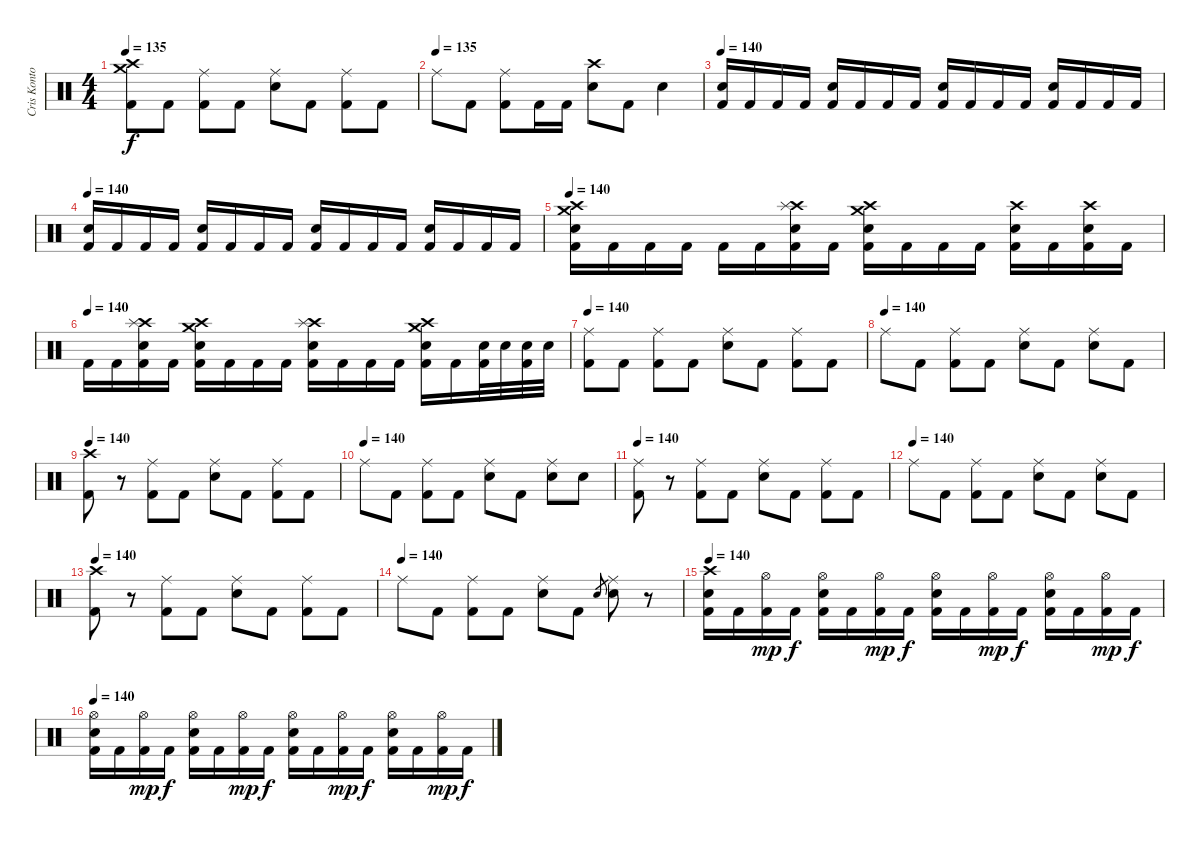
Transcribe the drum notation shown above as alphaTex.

\track ("Cris Kontos" "Cris Konto") {instrument percussion}
\staff {score}
\articulation defaults
\ts (4 4)
\tempo 128
\tempo 135
\clef neutral
\ks c
("Crash high (hit)" "Crash medium (hit)" "Kick (hit) 2").8{dy f} "Kick (hit) 2".8 ("Ride (middle)" "Kick (hit) 2").8 "Kick (hit) 2".8 ("Ride (middle)" "Electric Snare (hit)").8 "Kick (hit) 2".8 ("Ride (middle)" "Kick (hit) 2").8 "Kick (hit) 2".8 |
\tempo (135)
"Ride (middle)".8 "Kick (hit) 2".8 ("Ride (middle)" "Kick (hit) 2").8 "Kick (hit) 2".16 "Kick (hit) 2".16 ("Crash high (hit)" "Electric Snare (hit)").8 "Kick (hit) 2".8 "Electric Snare (hit)".4 |
\tempo 140
("Electric Snare (hit)" "Kick (hit) 2").16 "Kick (hit) 2".16 "Kick (hit) 2".16 "Kick (hit) 2".16 ("Electric Snare (hit)" "Kick (hit) 2").16 "Kick (hit) 2".16 "Kick (hit) 2".16 "Kick (hit) 2".16 ("Electric Snare (hit)" "Kick (hit) 2").16 "Kick (hit) 2".16 "Kick (hit) 2".16 "Kick (hit) 2".16 ("Electric Snare (hit)" "Kick (hit) 2").16 "Kick (hit) 2".16 "Kick (hit) 2".16 "Kick (hit) 2".16 |
\tempo 140
("Electric Snare (hit)" "Kick (hit) 2").16 "Kick (hit) 2".16 "Kick (hit) 2".16 "Kick (hit) 2".16 ("Electric Snare (hit)" "Kick (hit) 2").16 "Kick (hit) 2".16 "Kick (hit) 2".16 "Kick (hit) 2".16 ("Electric Snare (hit)" "Kick (hit) 2").16 "Kick (hit) 2".16 "Kick (hit) 2".16 "Kick (hit) 2".16 ("Electric Snare (hit)" "Kick (hit) 2").16 "Kick (hit) 2".16 "Kick (hit) 2".16 "Kick (hit) 2".16 |
\tempo 140
("Crash high (hit)" "Crash medium (hit)" "Electric Snare (hit)" "Kick (hit) 2").16 "Kick (hit) 2".16 "Kick (hit) 2".16 "Kick (hit) 2".16 "Kick (hit) 2".16 "Kick (hit) 2".16 ("Crash high (hit)" "Splash (hit)" "Electric Snare (hit)" "Kick (hit) 2").16 "Kick (hit) 2".16 ("Crash high (hit)" "Crash medium (hit)" "Electric Snare (hit)" "Kick (hit) 2").16 "Kick (hit) 2".16 "Kick (hit) 2".16 "Kick (hit) 2".16 ("Crash high (hit)" "Electric Snare (hit)" "Kick (hit) 2").16 "Kick (hit) 2".16 ("Crash high (hit)" "Electric Snare (hit)" "Kick (hit) 2").16 "Kick (hit) 2".16 |
\tempo (140)
"Kick (hit) 2".16 "Kick (hit) 2".16 ("Crash high (hit)" "Splash (hit)" "Electric Snare (hit)" "Kick (hit) 2").16 "Kick (hit) 2".16 ("Crash high (hit)" "Crash medium (hit)" "Electric Snare (hit)" "Kick (hit) 2").16 "Kick (hit) 2".16 "Kick (hit) 2".16 "Kick (hit) 2".16 ("Crash high (hit)" "Splash (hit)" "Electric Snare (hit)" "Kick (hit) 2").16 "Kick (hit) 2".16 "Kick (hit) 2".16 "Kick (hit) 2".16 ("Crash high (hit)" "Crash medium (hit)" "Electric Snare (hit)" "Kick (hit) 2").16 "Kick (hit) 2".16 ("Electric Snare (hit)" "Kick (hit) 2").32 "Electric Snare (hit)".32 ("Electric Snare (hit)" "Kick (hit) 2").32 "Electric Snare (hit)".32 |
\tempo 140
("Ride (middle)" "Kick (hit) 2").8 "Kick (hit) 2".8 ("Ride (middle)" "Kick (hit) 2").8 "Kick (hit) 2".8 ("Ride (middle)" "Electric Snare (hit)").8 "Kick (hit) 2".8 ("Ride (middle)" "Kick (hit) 2").8 "Kick (hit) 2".8 |
\tempo (140)
"Ride (middle)".8 "Kick (hit) 2".8 ("Ride (middle)" "Kick (hit) 2").8 "Kick (hit) 2".8 ("Ride (middle)" "Electric Snare (hit)").8 "Kick (hit) 2".8 ("Ride (middle)" "Electric Snare (hit)").8 "Kick (hit) 2".8 |
\tempo 140
("Crash high (hit)" "Kick (hit) 2").8 r.8 ("Ride (middle)" "Kick (hit) 2").8 "Kick (hit) 2".8 ("Ride (middle)" "Electric Snare (hit)").8 "Kick (hit) 2".8 ("Ride (middle)" "Kick (hit) 2").8 "Kick (hit) 2".8 |
\tempo (140)
"Ride (middle)".8 "Kick (hit) 2".8 ("Ride (middle)" "Kick (hit) 2").8 "Kick (hit) 2".8 ("Ride (middle)" "Electric Snare (hit)").8 "Kick (hit) 2".8 ("Ride (middle)" "Electric Snare (hit)").8 "Electric Snare (hit)".8 |
\tempo 140
("Ride (middle)" "Kick (hit) 2").8 r.8 ("Ride (middle)" "Kick (hit) 2").8 "Kick (hit) 2".8 ("Ride (middle)" "Electric Snare (hit)").8 "Kick (hit) 2".8 ("Ride (middle)" "Kick (hit) 2").8 "Kick (hit) 2".8 |
\tempo (140)
"Ride (middle)".8 "Kick (hit) 2".8 ("Ride (middle)" "Kick (hit) 2").8 "Kick (hit) 2".8 ("Ride (middle)" "Electric Snare (hit)").8 "Kick (hit) 2".8 ("Ride (middle)" "Electric Snare (hit)").8 "Kick (hit) 2".8 |
\tempo 140
("Crash high (hit)" "Kick (hit) 2").8 r.8 ("Ride (middle)" "Kick (hit) 2").8 "Kick (hit) 2".8 ("Ride (middle)" "Electric Snare (hit)").8 "Kick (hit) 2".8 ("Ride (middle)" "Kick (hit) 2").8 "Kick (hit) 2".8 |
\tempo (140)
"Ride (middle)".8 "Kick (hit) 2".8 ("Ride (middle)" "Kick (hit) 2").8 "Kick (hit) 2".8 ("Ride (middle)" "Electric Snare (hit)").8 "Kick (hit) 2".8 "Electric Snare (hit)".8{gr} ("Ride (middle)" "Electric Snare (hit)").8 r.8 |
\tempo 140
("Crash high (hit)" "Electric Snare (hit)" "Kick (hit) 2").16 "Kick (hit) 2".16 ("Hi-Hat (open)" "Kick (hit) 2").16{dy mp} "Kick (hit) 2".16{dy f} ("Hi-Hat (open)" "Electric Snare (hit)" "Kick (hit) 2").16 "Kick (hit) 2".16 ("Hi-Hat (open)" "Kick (hit) 2").16{dy mp} "Kick (hit) 2".16{dy f} ("Hi-Hat (open)" "Electric Snare (hit)" "Kick (hit) 2").16 "Kick (hit) 2".16 ("Hi-Hat (open)" "Kick (hit) 2").16{dy mp} "Kick (hit) 2".16{dy f} ("Hi-Hat (open)" "Electric Snare (hit)" "Kick (hit) 2").16 "Kick (hit) 2".16 ("Hi-Hat (open)" "Kick (hit) 2").16{dy mp} "Kick (hit) 2".16{dy f} |
\tempo 140
("Hi-Hat (open)" "Electric Snare (hit)" "Kick (hit) 2").16 "Kick (hit) 2".16 ("Hi-Hat (open)" "Kick (hit) 2").16{dy mp} "Kick (hit) 2".16{dy f} ("Hi-Hat (open)" "Electric Snare (hit)" "Kick (hit) 2").16 "Kick (hit) 2".16 ("Hi-Hat (open)" "Kick (hit) 2").16{dy mp} "Kick (hit) 2".16{dy f} ("Hi-Hat (open)" "Electric Snare (hit)" "Kick (hit) 2").16 "Kick (hit) 2".16 ("Hi-Hat (open)" "Kick (hit) 2").16{dy mp} "Kick (hit) 2".16{dy f} ("Hi-Hat (open)" "Electric Snare (hit)" "Kick (hit) 2").16 "Kick (hit) 2".16 ("Hi-Hat (open)" "Kick (hit) 2").16{dy mp} "Kick (hit) 2".16{dy f}
